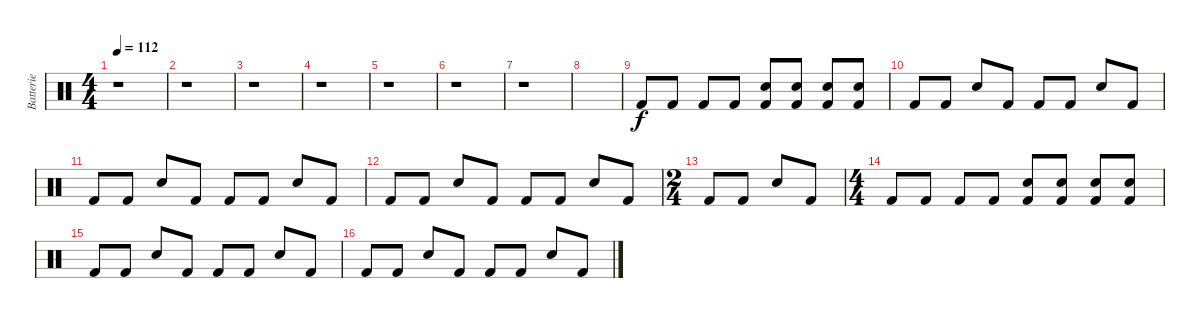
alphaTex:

\track ("Batterie" "Batterie") {instrument percussion}
\staff {score}
\articulation defaults
\ts (4 4)
\tempo 112
\clef neutral
\ks c
r.1{dy f} |
r.1 |
r.1 |
r.1 |
r.1 |
r.1 |
r.1 |
|
"Kick (hit) 2".8 "Kick (hit) 2".8 "Kick (hit) 2".8 "Kick (hit) 2".8 ("Snare (hit) 2" "Kick (hit) 2").8 ("Snare (hit) 2" "Kick (hit) 2").8 ("Snare (hit) 2" "Kick (hit) 2").8 ("Snare (hit) 2" "Kick (hit) 2").8 |
"Kick (hit) 2".8 "Kick (hit) 2".8 "Snare (hit) 2".8 "Kick (hit) 2".8 "Kick (hit) 2".8 "Kick (hit) 2".8 "Snare (hit) 2".8 "Kick (hit) 2".8 |
"Kick (hit) 2".8 "Kick (hit) 2".8 "Snare (hit) 2".8 "Kick (hit) 2".8 "Kick (hit) 2".8 "Kick (hit) 2".8 "Snare (hit) 2".8 "Kick (hit) 2".8 |
"Kick (hit) 2".8 "Kick (hit) 2".8 "Snare (hit) 2".8 "Kick (hit) 2".8 "Kick (hit) 2".8 "Kick (hit) 2".8 "Snare (hit) 2".8 "Kick (hit) 2".8 |
\ts (2 4)
"Kick (hit) 2".8 "Kick (hit) 2".8 "Snare (hit) 2".8 "Kick (hit) 2".8 |
\ts (4 4)
"Kick (hit) 2".8 "Kick (hit) 2".8 "Kick (hit) 2".8 "Kick (hit) 2".8 ("Snare (hit) 2" "Kick (hit) 2").8 ("Snare (hit) 2" "Kick (hit) 2").8 ("Snare (hit) 2" "Kick (hit) 2").8 ("Snare (hit) 2" "Kick (hit) 2").8 |
"Kick (hit) 2".8 "Kick (hit) 2".8 "Snare (hit) 2".8 "Kick (hit) 2".8 "Kick (hit) 2".8 "Kick (hit) 2".8 "Snare (hit) 2".8 "Kick (hit) 2".8 |
"Kick (hit) 2".8 "Kick (hit) 2".8 "Snare (hit) 2".8 "Kick (hit) 2".8 "Kick (hit) 2".8 "Kick (hit) 2".8 "Snare (hit) 2".8 "Kick (hit) 2".8
